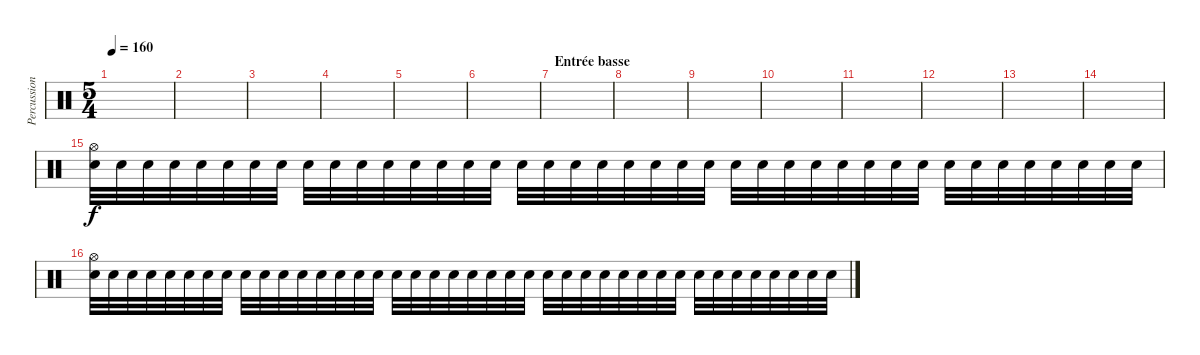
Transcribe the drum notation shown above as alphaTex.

\track ("Percussions" "Percussion") {instrument percussion}
\staff {score}
\articulation defaults
\ts (5 4)
\tempo 160
\clef neutral
\ks c
|
|
|
|
|
|
\section ("" "Entrée basse")
|
|
|
|
|
|
|
|
("Snare (hit) 2" "Hi-Hat (open)").32{volume 10} "Snare (hit) 2".32 "Snare (hit) 2".32 "Snare (hit) 2".32 "Snare (hit) 2".32 "Snare (hit) 2".32 "Snare (hit) 2".32 "Snare (hit) 2".32 "Snare (hit) 2".32 "Snare (hit) 2".32 "Snare (hit) 2".32 "Snare (hit) 2".32 "Snare (hit) 2".32 "Snare (hit) 2".32 "Snare (hit) 2".32 "Snare (hit) 2".32 "Snare (hit) 2".32 "Snare (hit) 2".32 "Snare (hit) 2".32 "Snare (hit) 2".32 "Snare (hit) 2".32 "Snare (hit) 2".32 "Snare (hit) 2".32 "Snare (hit) 2".32 "Snare (hit) 2".32 "Snare (hit) 2".32 "Snare (hit) 2".32 "Snare (hit) 2".32 "Snare (hit) 2".32 "Snare (hit) 2".32 "Snare (hit) 2".32 "Snare (hit) 2".32 "Snare (hit) 2".32 "Snare (hit) 2".32 "Snare (hit) 2".32 "Snare (hit) 2".32 "Snare (hit) 2".32 "Snare (hit) 2".32 "Snare (hit) 2".32 "Snare (hit) 2".32 |
("Snare (hit) 2" "Hi-Hat (open)").32{volume 10} "Snare (hit) 2".32 "Snare (hit) 2".32 "Snare (hit) 2".32 "Snare (hit) 2".32 "Snare (hit) 2".32 "Snare (hit) 2".32 "Snare (hit) 2".32 "Snare (hit) 2".32 "Snare (hit) 2".32 "Snare (hit) 2".32 "Snare (hit) 2".32 "Snare (hit) 2".32 "Snare (hit) 2".32 "Snare (hit) 2".32 "Snare (hit) 2".32 "Snare (hit) 2".32 "Snare (hit) 2".32 "Snare (hit) 2".32 "Snare (hit) 2".32 "Snare (hit) 2".32 "Snare (hit) 2".32 "Snare (hit) 2".32 "Snare (hit) 2".32 "Snare (hit) 2".32 "Snare (hit) 2".32 "Snare (hit) 2".32 "Snare (hit) 2".32 "Snare (hit) 2".32 "Snare (hit) 2".32 "Snare (hit) 2".32 "Snare (hit) 2".32 "Snare (hit) 2".32 "Snare (hit) 2".32 "Snare (hit) 2".32 "Snare (hit) 2".32 "Snare (hit) 2".32 "Snare (hit) 2".32 "Snare (hit) 2".32 "Snare (hit) 2".32
